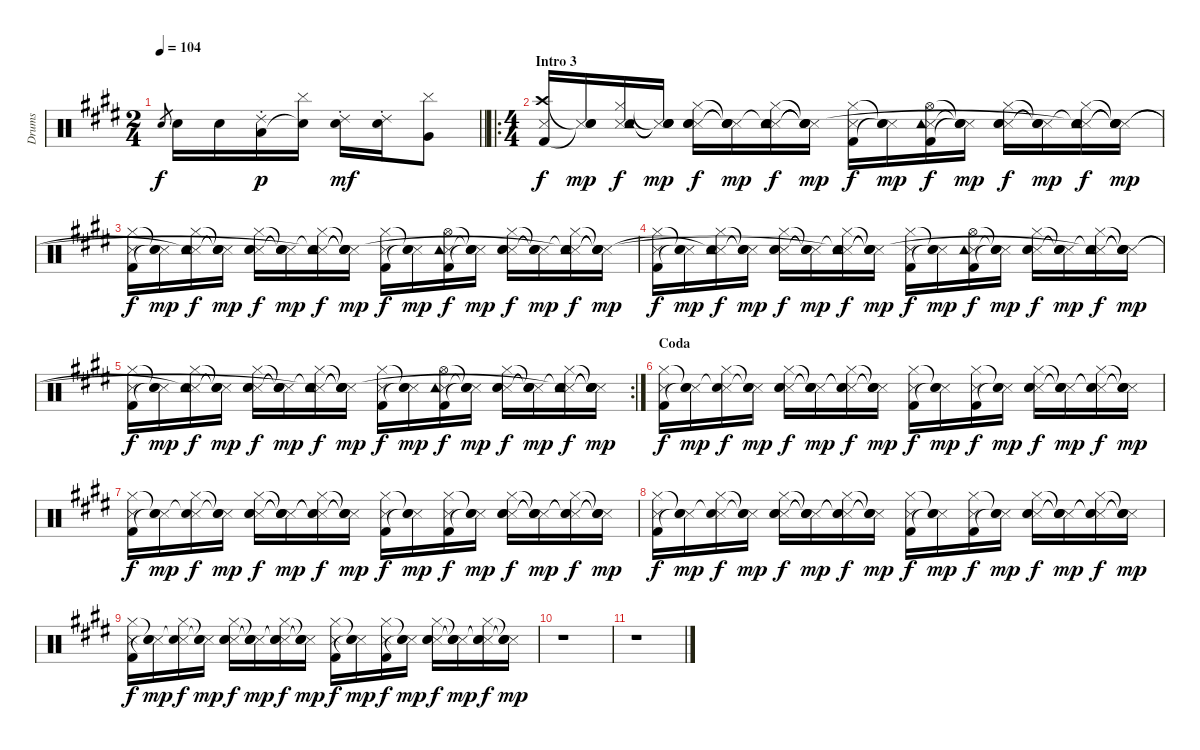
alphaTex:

\track ("Drums" "Drums") {instrument percussion}
\staff {score}
\articulation defaults
\ts (2 4)
\tempo 104
\clef neutral
\barLineRight lightlight
\ks e "Electric Snare (hit)".8{gr dy f} "Electric Snare (hit)".16 "Electric Snare (hit)".16
("Ride (choke) 2" "Low Tom (hit)").16{dy p} ("Cymbal (hit)" "Snare (hit)"{t}).16 ("Ride (choke) 2" "Electric Snare (hit)").16{dy mf} ("Ride (choke) 2" "Electric Snare (hit)").16 ("Cymbal (hit)" "Very Low Tom (hit)").8 |
\ro
\ts (4 4)
\section ("" "Intro 3")
("Metronome (hit)" "Crash high (hit)" "Kick (hit) 2").16{dy f} ("Metronome (hit)" "Snare (hit)"{t} "Snare (hit)"{t}).16{dy mp} ("Metronome (hit)" "Hi-Hat (closed)" "Tambourine (hit)" "Snare (hit)"{t}).16{dy f} ("Metronome (hit)" "Snare (hit)"{t} "Snare (hit)"{t} "Snare (hit)"{t}).16{dy mp} ("Metronome (hit)" "Hi-Hat (closed)" "Hand Clap (hit)" "Electric Snare (hit)").16{dy f} ("Metronome (hit)" "Snare (hit)"{t} "Snare (hit)"{t} "Snare (hit)"{t}).16{dy mp} ("Metronome (hit)" "Hi-Hat (closed)" "Tambourine (hit)" "Snare (hit)"{t} "Snare (hit)"{t}).16{dy f} ("Metronome (hit)" "Snare (hit)"{t} "Snare (hit)"{t} "Snare (hit)"{t} "Snare (hit)"{t}).16{dy mp} ("Metronome (hit)" "Hi-Hat (closed)" "Kick (hit) 2").16{dy f} ("Metronome (hit)" "Snare (hit)"{t} "Snare (hit)"{t}).16{dy mp} ("Metronome (hit)" "Hi-Hat (open)" "Tambourine (hit)" "Kick (hit) 2").16{dy f} ("Metronome (hit)" "Snare (hit)"{t} "Snare (hit)"{t} "Snare (hit)"{t}).16{dy mp} ("Metronome (hit)" "Hi-Hat (closed)" "Hand Clap (hit)" "Electric Snare (hit)").16{dy f} ("Metronome (hit)" "Snare (hit)"{t} "Snare (hit)"{t} "Snare (hit)"{t}).16{dy mp} ("Metronome (hit)" "Hi-Hat (closed)" "Tambourine (hit)" "Snare (hit)"{t} "Snare (hit)"{t}).16{dy f} ("Metronome (hit)" "Snare (hit)"{t} "Snare (hit)"{t} "Snare (hit)"{t} "Snare (hit)"{t}).16{dy mp} |
("Metronome (hit)" "Hi-Hat (closed)" "Kick (hit) 2").16{dy f} ("Metronome (hit)" "Snare (hit)"{t} "Snare (hit)"{t}).16{dy mp} ("Metronome (hit)" "Hi-Hat (closed)" "Tambourine (hit)" "Snare (hit)"{t}).16{dy f} ("Metronome (hit)" "Snare (hit)"{t} "Snare (hit)"{t} "Snare (hit)"{t}).16{dy mp} ("Metronome (hit)" "Hi-Hat (closed)" "Hand Clap (hit)" "Electric Snare (hit)").16{dy f} ("Metronome (hit)" "Snare (hit)"{t} "Snare (hit)"{t} "Snare (hit)"{t}).16{dy mp} ("Metronome (hit)" "Hi-Hat (closed)" "Tambourine (hit)" "Snare (hit)"{t} "Snare (hit)"{t}).16{dy f} ("Metronome (hit)" "Snare (hit)"{t} "Snare (hit)"{t} "Snare (hit)"{t} "Snare (hit)"{t}).16{dy mp} ("Metronome (hit)" "Hi-Hat (closed)" "Kick (hit) 2").16{dy f} ("Metronome (hit)" "Snare (hit)"{t} "Snare (hit)"{t}).16{dy mp} ("Metronome (hit)" "Hi-Hat (open)" "Tambourine (hit)" "Kick (hit) 2").16{dy f} ("Metronome (hit)" "Snare (hit)"{t} "Snare (hit)"{t} "Snare (hit)"{t}).16{dy mp} ("Metronome (hit)" "Hi-Hat (closed)" "Hand Clap (hit)" "Electric Snare (hit)").16{dy f} ("Metronome (hit)" "Snare (hit)"{t} "Snare (hit)"{t} "Snare (hit)"{t}).16{dy mp} ("Metronome (hit)" "Hi-Hat (closed)" "Tambourine (hit)" "Snare (hit)"{t} "Snare (hit)"{t}).16{dy f} ("Metronome (hit)" "Snare (hit)"{t} "Snare (hit)"{t} "Snare (hit)"{t} "Snare (hit)"{t}).16{dy mp} |
("Metronome (hit)" "Hi-Hat (closed)" "Kick (hit) 2").16{dy f} ("Metronome (hit)" "Snare (hit)"{t} "Snare (hit)"{t}).16{dy mp} ("Metronome (hit)" "Hi-Hat (closed)" "Tambourine (hit)" "Snare (hit)"{t}).16{dy f} ("Metronome (hit)" "Snare (hit)"{t} "Snare (hit)"{t} "Snare (hit)"{t}).16{dy mp} ("Metronome (hit)" "Hi-Hat (closed)" "Hand Clap (hit)" "Electric Snare (hit)").16{dy f} ("Metronome (hit)" "Snare (hit)"{t} "Snare (hit)"{t} "Snare (hit)"{t}).16{dy mp} ("Metronome (hit)" "Hi-Hat (closed)" "Tambourine (hit)" "Snare (hit)"{t} "Snare (hit)"{t}).16{dy f} ("Metronome (hit)" "Snare (hit)"{t} "Snare (hit)"{t} "Snare (hit)"{t} "Snare (hit)"{t}).16{dy mp} ("Metronome (hit)" "Hi-Hat (closed)" "Kick (hit) 2").16{dy f} ("Metronome (hit)" "Snare (hit)"{t} "Snare (hit)"{t}).16{dy mp} ("Metronome (hit)" "Hi-Hat (open)" "Tambourine (hit)" "Kick (hit) 2").16{dy f} ("Metronome (hit)" "Snare (hit)"{t} "Snare (hit)"{t} "Snare (hit)"{t}).16{dy mp} ("Metronome (hit)" "Hi-Hat (closed)" "Hand Clap (hit)" "Electric Snare (hit)").16{dy f} ("Metronome (hit)" "Snare (hit)"{t} "Snare (hit)"{t} "Snare (hit)"{t}).16{dy mp} ("Metronome (hit)" "Hi-Hat (closed)" "Tambourine (hit)" "Snare (hit)"{t} "Snare (hit)"{t}).16{dy f} ("Metronome (hit)" "Snare (hit)"{t} "Snare (hit)"{t} "Snare (hit)"{t} "Snare (hit)"{t}).16{dy mp} |
\rc 2
("Metronome (hit)" "Hi-Hat (closed)" "Kick (hit) 2").16{dy f} ("Metronome (hit)" "Snare (hit)"{t} "Snare (hit)"{t}).16{dy mp} ("Metronome (hit)" "Hi-Hat (closed)" "Tambourine (hit)" "Snare (hit)"{t}).16{dy f} ("Metronome (hit)" "Snare (hit)"{t} "Snare (hit)"{t} "Snare (hit)"{t}).16{dy mp} ("Metronome (hit)" "Hi-Hat (closed)" "Hand Clap (hit)" "Electric Snare (hit)").16{dy f} ("Metronome (hit)" "Snare (hit)"{t} "Snare (hit)"{t} "Snare (hit)"{t}).16{dy mp} ("Metronome (hit)" "Hi-Hat (closed)" "Tambourine (hit)" "Snare (hit)"{t} "Snare (hit)"{t}).16{dy f} ("Metronome (hit)" "Snare (hit)"{t} "Snare (hit)"{t} "Snare (hit)"{t} "Snare (hit)"{t}).16{dy mp} ("Metronome (hit)" "Hi-Hat (closed)" "Kick (hit) 2").16{dy f} ("Metronome (hit)" "Snare (hit)"{t} "Snare (hit)"{t}).16{dy mp} ("Metronome (hit)" "Hi-Hat (open)" "Tambourine (hit)" "Kick (hit) 2").16{dy f} ("Metronome (hit)" "Snare (hit)"{t} "Snare (hit)"{t} "Snare (hit)"{t}).16{dy mp} ("Metronome (hit)" "Hi-Hat (closed)" "Hand Clap (hit)" "Electric Snare (hit)").16{dy f} ("Metronome (hit)" "Snare (hit)"{t} "Snare (hit)"{t} "Snare (hit)"{t}).16{dy mp} ("Metronome (hit)" "Hi-Hat (closed)" "Tambourine (hit)" "Snare (hit)"{t} "Snare (hit)"{t}).16{dy f} ("Metronome (hit)" "Snare (hit)"{t} "Snare (hit)"{t} "Snare (hit)"{t} "Snare (hit)"{t}).16{dy mp} |
\section ("" "Coda")
("Metronome (hit)" "Hi-Hat (closed)" "Kick (hit) 2").16{dy f} ("Metronome (hit)" "Snare (hit)"{t} "Snare (hit)"{t}).16{dy mp} ("Metronome (hit)" "Hi-Hat (closed)" "Snare (hit)"{t}).16{dy f} ("Metronome (hit)" "Snare (hit)"{t} "Snare (hit)"{t}).16{dy mp} ("Metronome (hit)" "Hi-Hat (closed)" "Hand Clap (hit)" "Electric Snare (hit)").16{dy f} ("Metronome (hit)" "Snare (hit)"{t} "Snare (hit)"{t} "Snare (hit)"{t}).16{dy mp} ("Metronome (hit)" "Hi-Hat (closed)" "Snare (hit)"{t} "Snare (hit)"{t}).16{dy f} ("Metronome (hit)" "Snare (hit)"{t} "Snare (hit)"{t} "Snare (hit)"{t}).16{dy mp} ("Metronome (hit)" "Hi-Hat (closed)" "Kick (hit) 2").16{dy f} ("Metronome (hit)" "Snare (hit)"{t} "Snare (hit)"{t}).16{dy mp} ("Metronome (hit)" "Hi-Hat (closed)" "Kick (hit) 2").16{dy f} ("Metronome (hit)" "Snare (hit)"{t} "Snare (hit)"{t}).16{dy mp} ("Metronome (hit)" "Hi-Hat (closed)" "Hand Clap (hit)" "Electric Snare (hit)").16{dy f} ("Metronome (hit)" "Snare (hit)"{t} "Snare (hit)"{t} "Snare (hit)"{t}).16{dy mp} ("Metronome (hit)" "Hi-Hat (closed)" "Snare (hit)"{t} "Snare (hit)"{t}).16{dy f} ("Metronome (hit)" "Snare (hit)"{t} "Snare (hit)"{t} "Snare (hit)"{t}).16{dy mp} |
("Metronome (hit)" "Hi-Hat (closed)" "Kick (hit) 2").16{dy f} ("Metronome (hit)" "Snare (hit)"{t} "Snare (hit)"{t}).16{dy mp} ("Metronome (hit)" "Hi-Hat (closed)" "Snare (hit)"{t}).16{dy f} ("Metronome (hit)" "Snare (hit)"{t} "Snare (hit)"{t}).16{dy mp} ("Metronome (hit)" "Hi-Hat (closed)" "Hand Clap (hit)" "Electric Snare (hit)").16{dy f} ("Metronome (hit)" "Snare (hit)"{t} "Snare (hit)"{t} "Snare (hit)"{t}).16{dy mp} ("Metronome (hit)" "Hi-Hat (closed)" "Snare (hit)"{t} "Snare (hit)"{t}).16{dy f} ("Metronome (hit)" "Snare (hit)"{t} "Snare (hit)"{t} "Snare (hit)"{t}).16{dy mp} ("Metronome (hit)" "Hi-Hat (closed)" "Kick (hit) 2").16{dy f} ("Metronome (hit)" "Snare (hit)"{t} "Snare (hit)"{t}).16{dy mp} ("Metronome (hit)" "Hi-Hat (closed)" "Kick (hit) 2").16{dy f} ("Metronome (hit)" "Snare (hit)"{t} "Snare (hit)"{t}).16{dy mp} ("Metronome (hit)" "Hi-Hat (closed)" "Hand Clap (hit)" "Electric Snare (hit)").16{dy f} ("Metronome (hit)" "Snare (hit)"{t} "Snare (hit)"{t} "Snare (hit)"{t}).16{dy mp} ("Metronome (hit)" "Hi-Hat (closed)" "Snare (hit)"{t} "Snare (hit)"{t}).16{dy f} ("Metronome (hit)" "Snare (hit)"{t} "Snare (hit)"{t} "Snare (hit)"{t}).16{dy mp} |
("Metronome (hit)" "Hi-Hat (closed)" "Kick (hit) 2").16{dy f} ("Metronome (hit)" "Snare (hit)"{t} "Snare (hit)"{t}).16{dy mp} ("Metronome (hit)" "Hi-Hat (closed)" "Snare (hit)"{t}).16{dy f} ("Metronome (hit)" "Snare (hit)"{t} "Snare (hit)"{t}).16{dy mp} ("Metronome (hit)" "Hi-Hat (closed)" "Hand Clap (hit)" "Electric Snare (hit)").16{dy f} ("Metronome (hit)" "Snare (hit)"{t} "Snare (hit)"{t} "Snare (hit)"{t}).16{dy mp} ("Metronome (hit)" "Hi-Hat (closed)" "Snare (hit)"{t} "Snare (hit)"{t}).16{dy f} ("Metronome (hit)" "Snare (hit)"{t} "Snare (hit)"{t} "Snare (hit)"{t}).16{dy mp} ("Metronome (hit)" "Hi-Hat (closed)" "Kick (hit) 2").16{dy f} ("Metronome (hit)" "Snare (hit)"{t} "Snare (hit)"{t}).16{dy mp} ("Metronome (hit)" "Hi-Hat (closed)" "Kick (hit) 2").16{dy f} ("Metronome (hit)" "Snare (hit)"{t} "Snare (hit)"{t}).16{dy mp} ("Metronome (hit)" "Hi-Hat (closed)" "Hand Clap (hit)" "Electric Snare (hit)").16{dy f} ("Metronome (hit)" "Snare (hit)"{t} "Snare (hit)"{t} "Snare (hit)"{t}).16{dy mp} ("Metronome (hit)" "Hi-Hat (closed)" "Snare (hit)"{t} "Snare (hit)"{t}).16{dy f} ("Metronome (hit)" "Snare (hit)"{t} "Snare (hit)"{t} "Snare (hit)"{t}).16{dy mp} |
("Metronome (hit)" "Hi-Hat (closed)" "Kick (hit) 2").16{dy f} ("Metronome (hit)" "Snare (hit)"{t} "Snare (hit)"{t}).16{dy mp} ("Metronome (hit)" "Hi-Hat (closed)" "Snare (hit)"{t}).16{dy f} ("Metronome (hit)" "Snare (hit)"{t} "Snare (hit)"{t}).16{dy mp} ("Metronome (hit)" "Hi-Hat (closed)" "Hand Clap (hit)" "Electric Snare (hit)").16{dy f} ("Metronome (hit)" "Snare (hit)"{t} "Snare (hit)"{t} "Snare (hit)"{t}).16{dy mp} ("Metronome (hit)" "Hi-Hat (closed)" "Snare (hit)"{t} "Snare (hit)"{t}).16{dy f} ("Metronome (hit)" "Snare (hit)"{t} "Snare (hit)"{t} "Snare (hit)"{t}).16{dy mp} ("Metronome (hit)" "Hi-Hat (closed)" "Kick (hit) 2").16{dy f} ("Metronome (hit)" "Snare (hit)"{t} "Snare (hit)"{t}).16{dy mp} ("Metronome (hit)" "Hi-Hat (closed)" "Kick (hit) 2").16{dy f} ("Metronome (hit)" "Snare (hit)"{t} "Snare (hit)"{t}).16{dy mp} ("Metronome (hit)" "Hi-Hat (closed)" "Hand Clap (hit)" "Electric Snare (hit)").16{dy f} ("Metronome (hit)" "Snare (hit)"{t} "Snare (hit)"{t} "Snare (hit)"{t}).16{dy mp} ("Metronome (hit)" "Hi-Hat (closed)" "Snare (hit)"{t} "Snare (hit)"{t}).16{dy f} ("Metronome (hit)" "Snare (hit)"{t} "Snare (hit)"{t} "Snare (hit)"{t}).16{dy mp} |
r.1 |
r.1
